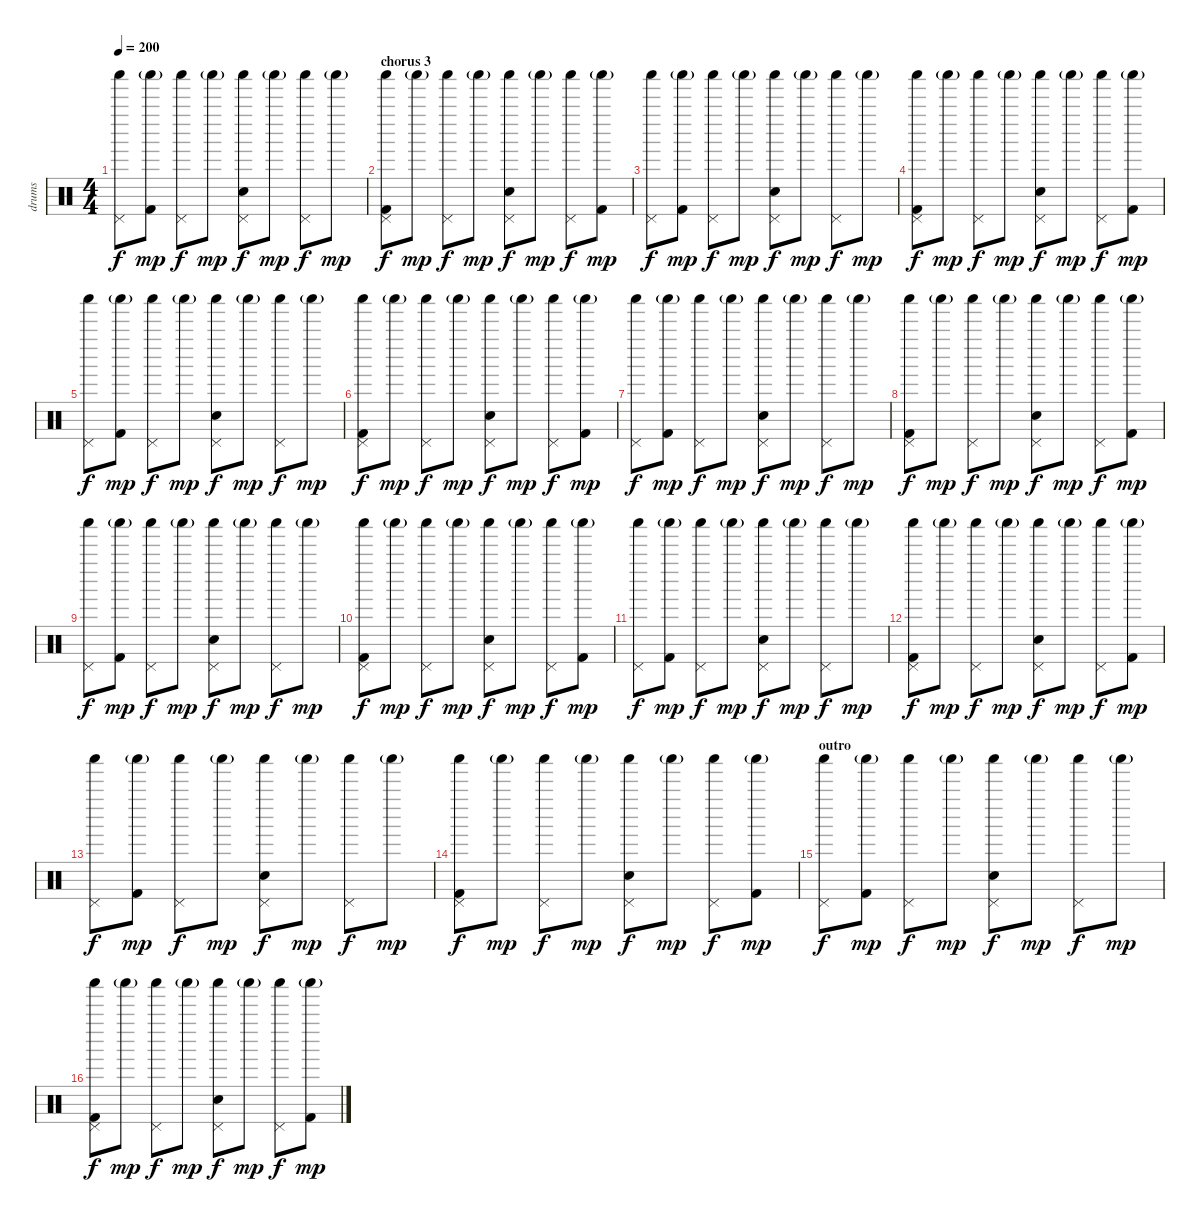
\track ("drums" "drums") {instrument percussion}
\staff {score}
\articulation defaults
\ts (4 4)
\tempo 200
\clef neutral
\ks c
("Shaker (hit)" "Pedal Hi-Hat (hit)").8{dy f} ("Kick (hit) 2" "Shaker (hit)"{g}).8{dy mp} ("Shaker (hit)" "Pedal Hi-Hat (hit)").8{dy f} "Shaker (hit)"{g}.8{dy mp} ("Electric Snare (hit)" "Shaker (hit)" "Pedal Hi-Hat (hit)").8{dy f} "Shaker (hit)"{g}.8{dy mp} ("Shaker (hit)" "Pedal Hi-Hat (hit)").8{dy f} "Shaker (hit)"{g}.8{dy mp} |
\section ("" "chorus 3")
("Kick (hit) 2" "Shaker (hit)" "Pedal Hi-Hat (hit)").8{dy f} "Shaker (hit)"{g}.8{dy mp} ("Shaker (hit)" "Pedal Hi-Hat (hit)").8{dy f} "Shaker (hit)"{g}.8{dy mp} ("Electric Snare (hit)" "Shaker (hit)" "Pedal Hi-Hat (hit)").8{dy f} "Shaker (hit)"{g}.8{dy mp} ("Shaker (hit)" "Pedal Hi-Hat (hit)").8{dy f} ("Kick (hit) 2" "Shaker (hit)"{g}).8{dy mp} |
("Shaker (hit)" "Pedal Hi-Hat (hit)").8{dy f} ("Kick (hit) 2" "Shaker (hit)"{g}).8{dy mp} ("Shaker (hit)" "Pedal Hi-Hat (hit)").8{dy f} "Shaker (hit)"{g}.8{dy mp} ("Electric Snare (hit)" "Shaker (hit)" "Pedal Hi-Hat (hit)").8{dy f} "Shaker (hit)"{g}.8{dy mp} ("Shaker (hit)" "Pedal Hi-Hat (hit)").8{dy f} "Shaker (hit)"{g}.8{dy mp} |
("Kick (hit) 2" "Shaker (hit)" "Pedal Hi-Hat (hit)").8{dy f} "Shaker (hit)"{g}.8{dy mp} ("Shaker (hit)" "Pedal Hi-Hat (hit)").8{dy f} "Shaker (hit)"{g}.8{dy mp} ("Electric Snare (hit)" "Shaker (hit)" "Pedal Hi-Hat (hit)").8{dy f} "Shaker (hit)"{g}.8{dy mp} ("Shaker (hit)" "Pedal Hi-Hat (hit)").8{dy f} ("Kick (hit) 2" "Shaker (hit)"{g}).8{dy mp} |
("Shaker (hit)" "Pedal Hi-Hat (hit)").8{dy f} ("Kick (hit) 2" "Shaker (hit)"{g}).8{dy mp} ("Shaker (hit)" "Pedal Hi-Hat (hit)").8{dy f} "Shaker (hit)"{g}.8{dy mp} ("Electric Snare (hit)" "Shaker (hit)" "Pedal Hi-Hat (hit)").8{dy f} "Shaker (hit)"{g}.8{dy mp} ("Shaker (hit)" "Pedal Hi-Hat (hit)").8{dy f} "Shaker (hit)"{g}.8{dy mp} |
("Kick (hit) 2" "Shaker (hit)" "Pedal Hi-Hat (hit)").8{dy f} "Shaker (hit)"{g}.8{dy mp} ("Shaker (hit)" "Pedal Hi-Hat (hit)").8{dy f} "Shaker (hit)"{g}.8{dy mp} ("Electric Snare (hit)" "Shaker (hit)" "Pedal Hi-Hat (hit)").8{dy f} "Shaker (hit)"{g}.8{dy mp} ("Shaker (hit)" "Pedal Hi-Hat (hit)").8{dy f} ("Kick (hit) 2" "Shaker (hit)"{g}).8{dy mp} |
("Shaker (hit)" "Pedal Hi-Hat (hit)").8{dy f} ("Kick (hit) 2" "Shaker (hit)"{g}).8{dy mp} ("Shaker (hit)" "Pedal Hi-Hat (hit)").8{dy f} "Shaker (hit)"{g}.8{dy mp} ("Electric Snare (hit)" "Shaker (hit)" "Pedal Hi-Hat (hit)").8{dy f} "Shaker (hit)"{g}.8{dy mp} ("Shaker (hit)" "Pedal Hi-Hat (hit)").8{dy f} "Shaker (hit)"{g}.8{dy mp} |
("Kick (hit) 2" "Shaker (hit)" "Pedal Hi-Hat (hit)").8{dy f} "Shaker (hit)"{g}.8{dy mp} ("Shaker (hit)" "Pedal Hi-Hat (hit)").8{dy f} "Shaker (hit)"{g}.8{dy mp} ("Electric Snare (hit)" "Shaker (hit)" "Pedal Hi-Hat (hit)").8{dy f} "Shaker (hit)"{g}.8{dy mp} ("Shaker (hit)" "Pedal Hi-Hat (hit)").8{dy f} ("Kick (hit) 2" "Shaker (hit)"{g}).8{dy mp} |
("Shaker (hit)" "Pedal Hi-Hat (hit)").8{dy f} ("Kick (hit) 2" "Shaker (hit)"{g}).8{dy mp} ("Shaker (hit)" "Pedal Hi-Hat (hit)").8{dy f} "Shaker (hit)"{g}.8{dy mp} ("Electric Snare (hit)" "Shaker (hit)" "Pedal Hi-Hat (hit)").8{dy f} "Shaker (hit)"{g}.8{dy mp} ("Shaker (hit)" "Pedal Hi-Hat (hit)").8{dy f} "Shaker (hit)"{g}.8{dy mp} |
("Kick (hit) 2" "Shaker (hit)" "Pedal Hi-Hat (hit)").8{dy f} "Shaker (hit)"{g}.8{dy mp} ("Shaker (hit)" "Pedal Hi-Hat (hit)").8{dy f} "Shaker (hit)"{g}.8{dy mp} ("Electric Snare (hit)" "Shaker (hit)" "Pedal Hi-Hat (hit)").8{dy f} "Shaker (hit)"{g}.8{dy mp} ("Shaker (hit)" "Pedal Hi-Hat (hit)").8{dy f} ("Kick (hit) 2" "Shaker (hit)"{g}).8{dy mp} |
("Shaker (hit)" "Pedal Hi-Hat (hit)").8{dy f} ("Kick (hit) 2" "Shaker (hit)"{g}).8{dy mp} ("Shaker (hit)" "Pedal Hi-Hat (hit)").8{dy f} "Shaker (hit)"{g}.8{dy mp} ("Electric Snare (hit)" "Shaker (hit)" "Pedal Hi-Hat (hit)").8{dy f} "Shaker (hit)"{g}.8{dy mp} ("Shaker (hit)" "Pedal Hi-Hat (hit)").8{dy f} "Shaker (hit)"{g}.8{dy mp} |
("Kick (hit) 2" "Shaker (hit)" "Pedal Hi-Hat (hit)").8{dy f} "Shaker (hit)"{g}.8{dy mp} ("Shaker (hit)" "Pedal Hi-Hat (hit)").8{dy f} "Shaker (hit)"{g}.8{dy mp} ("Electric Snare (hit)" "Shaker (hit)" "Pedal Hi-Hat (hit)").8{dy f} "Shaker (hit)"{g}.8{dy mp} ("Shaker (hit)" "Pedal Hi-Hat (hit)").8{dy f} ("Kick (hit) 2" "Shaker (hit)"{g}).8{dy mp} |
("Shaker (hit)" "Pedal Hi-Hat (hit)").8{dy f} ("Kick (hit) 2" "Shaker (hit)"{g}).8{dy mp} ("Shaker (hit)" "Pedal Hi-Hat (hit)").8{dy f} "Shaker (hit)"{g}.8{dy mp} ("Electric Snare (hit)" "Shaker (hit)" "Pedal Hi-Hat (hit)").8{dy f} "Shaker (hit)"{g}.8{dy mp} ("Shaker (hit)" "Pedal Hi-Hat (hit)").8{dy f} "Shaker (hit)"{g}.8{dy mp} |
("Kick (hit) 2" "Shaker (hit)" "Pedal Hi-Hat (hit)").8{dy f} "Shaker (hit)"{g}.8{dy mp} ("Shaker (hit)" "Pedal Hi-Hat (hit)").8{dy f} "Shaker (hit)"{g}.8{dy mp} ("Electric Snare (hit)" "Shaker (hit)" "Pedal Hi-Hat (hit)").8{dy f} "Shaker (hit)"{g}.8{dy mp} ("Shaker (hit)" "Pedal Hi-Hat (hit)").8{dy f} ("Kick (hit) 2" "Shaker (hit)"{g}).8{dy mp} |
\section ("" "outro")
("Shaker (hit)" "Pedal Hi-Hat (hit)").8{dy f} ("Kick (hit) 2" "Shaker (hit)"{g}).8{dy mp} ("Shaker (hit)" "Pedal Hi-Hat (hit)").8{dy f} "Shaker (hit)"{g}.8{dy mp} ("Electric Snare (hit)" "Shaker (hit)" "Pedal Hi-Hat (hit)").8{dy f} "Shaker (hit)"{g}.8{dy mp} ("Shaker (hit)" "Pedal Hi-Hat (hit)").8{dy f} "Shaker (hit)"{g}.8{dy mp} |
("Kick (hit) 2" "Shaker (hit)" "Pedal Hi-Hat (hit)").8{dy f} "Shaker (hit)"{g}.8{dy mp} ("Shaker (hit)" "Pedal Hi-Hat (hit)").8{dy f} "Shaker (hit)"{g}.8{dy mp} ("Electric Snare (hit)" "Shaker (hit)" "Pedal Hi-Hat (hit)").8{dy f} "Shaker (hit)"{g}.8{dy mp} ("Shaker (hit)" "Pedal Hi-Hat (hit)").8{dy f} ("Kick (hit) 2" "Shaker (hit)"{g}).8{dy mp}
